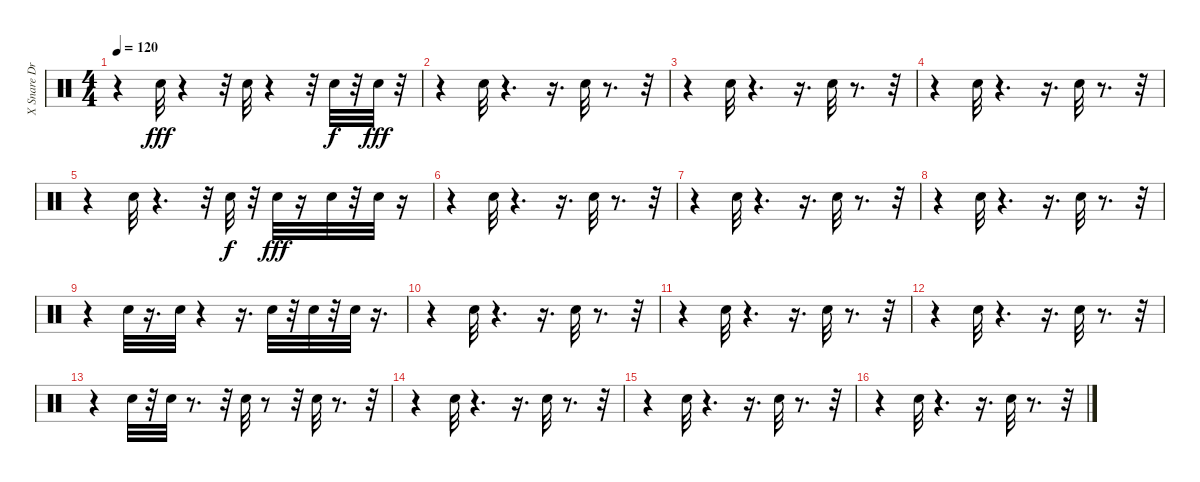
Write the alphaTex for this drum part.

\track ("X Snare Drum        " "X Snare Dr") {instrument percussion}
\staff {score}
\articulation defaults
\ts (4 4)
\tempo 120
\clef neutral
\ks c
r.4{dy fff} "Snare (hit) 2".32 r.4 r.32 "Snare (hit) 2".32 r.4 r.32 "Snare (hit) 2".32{dy f} r.32 "Snare (hit) 2".32{dy fff} r.32 |
r.4 "Snare (hit) 2".32 r.4{d} r.16{d} "Snare (hit) 2".32 r.8{d} r.32 |
r.4 "Snare (hit) 2".32 r.4{d} r.16{d} "Snare (hit) 2".32 r.8{d} r.32 |
r.4 "Snare (hit) 2".32 r.4{d} r.16{d} "Snare (hit) 2".32 r.8{d} r.32 |
r.4 "Snare (hit) 2".32 r.4{d} r.32 "Snare (hit) 2".32{dy f} r.32 "Snare (hit) 2".32{dy fff} r.16 "Snare (hit) 2".32 r.32 "Snare (hit) 2".32 r.16 |
r.4 "Snare (hit) 2".32 r.4{d} r.16{d} "Snare (hit) 2".32 r.8{d} r.32 |
r.4 "Snare (hit) 2".32 r.4{d} r.16{d} "Snare (hit) 2".32 r.8{d} r.32 |
r.4 "Snare (hit) 2".32 r.4{d} r.16{d} "Snare (hit) 2".32 r.8{d} r.32 |
r.4 "Snare (hit) 2".32 r.16{d} "Snare (hit) 2".32 r.4 r.16{d} "Snare (hit) 2".32 r.32 "Snare (hit) 2".32 r.32 "Snare (hit) 2".32 r.16{d} |
r.4 "Snare (hit) 2".32 r.4{d} r.16{d} "Snare (hit) 2".32 r.8{d} r.32 |
r.4 "Snare (hit) 2".32 r.4{d} r.16{d} "Snare (hit) 2".32 r.8{d} r.32 |
r.4 "Snare (hit) 2".32 r.4{d} r.16{d} "Snare (hit) 2".32 r.8{d} r.32 |
r.4 "Snare (hit) 2".32 r.32 "Snare (hit) 2".32 r.8{d} r.32 "Snare (hit) 2".32 r.8 r.32 "Snare (hit) 2".32 r.8{d} r.32 |
r.4 "Snare (hit) 2".32 r.4{d} r.16{d} "Snare (hit) 2".32 r.8{d} r.32 |
r.4 "Snare (hit) 2".32 r.4{d} r.16{d} "Snare (hit) 2".32 r.8{d} r.32 |
r.4 "Snare (hit) 2".32 r.4{d} r.16{d} "Snare (hit) 2".32 r.8{d} r.32
